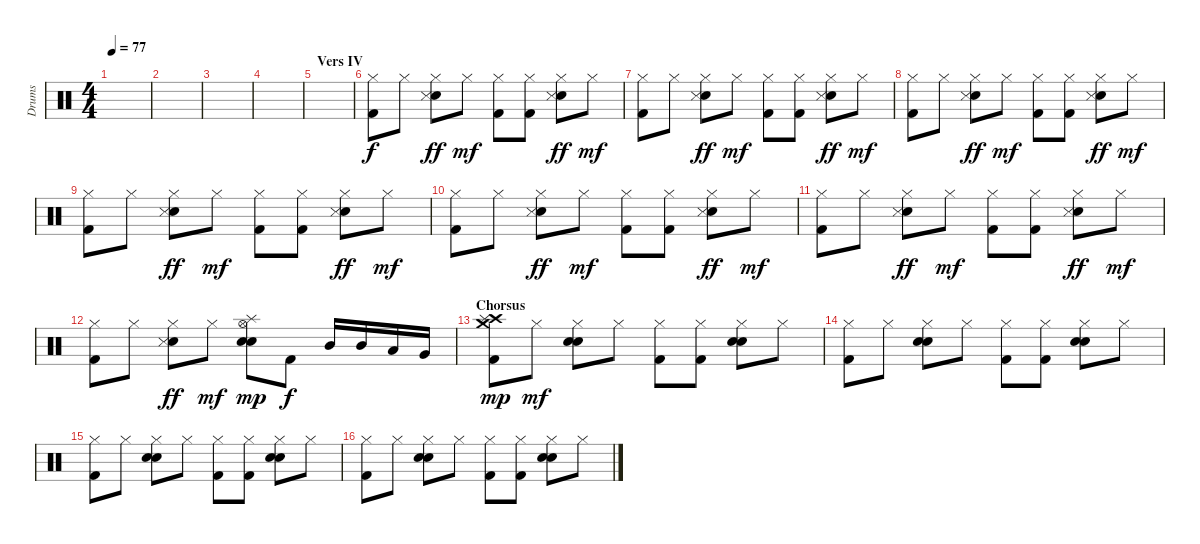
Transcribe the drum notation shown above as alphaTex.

\track ("Drums" "Drums") {instrument percussion}
\staff {score}
\articulation defaults
\ts (4 4)
\tempo 77
\clef neutral
\ks c
|
|
|
|
\section ("" "Vers IV")
|
("Hi-Hat (closed)" "Kick (hit) 2").8{volume 9} "Hi-Hat (closed)".8 ("Hi-Hat (closed)" "Hand Clap (hit)" "Snare (side stick) 3").8{dy ff} "Hi-Hat (closed)".8{dy mf} ("Hi-Hat (closed)" "Kick (hit) 2").8 ("Hi-Hat (closed)" "Kick (hit) 2").8 ("Hi-Hat (closed)" "Hand Clap (hit)" "Snare (side stick) 3").8{dy ff} "Hi-Hat (closed)".8{dy mf} |
("Hi-Hat (closed)" "Kick (hit) 2").8 "Hi-Hat (closed)".8 ("Hi-Hat (closed)" "Hand Clap (hit)" "Snare (side stick) 3").8{dy ff} "Hi-Hat (closed)".8{dy mf} ("Hi-Hat (closed)" "Kick (hit) 2").8 ("Hi-Hat (closed)" "Kick (hit) 2").8 ("Hi-Hat (closed)" "Hand Clap (hit)" "Snare (side stick) 3").8{dy ff} "Hi-Hat (closed)".8{dy mf} |
("Hi-Hat (closed)" "Kick (hit) 2").8 "Hi-Hat (closed)".8 ("Hi-Hat (closed)" "Hand Clap (hit)" "Snare (side stick) 3").8{dy ff} "Hi-Hat (closed)".8{dy mf} ("Hi-Hat (closed)" "Kick (hit) 2").8 ("Hi-Hat (closed)" "Kick (hit) 2").8 ("Hi-Hat (closed)" "Hand Clap (hit)" "Snare (side stick) 3").8{dy ff} "Hi-Hat (closed)".8{dy mf} |
("Hi-Hat (closed)" "Kick (hit) 2").8 "Hi-Hat (closed)".8 ("Hi-Hat (closed)" "Hand Clap (hit)" "Snare (side stick) 3").8{dy ff} "Hi-Hat (closed)".8{dy mf} ("Hi-Hat (closed)" "Kick (hit) 2").8 ("Hi-Hat (closed)" "Kick (hit) 2").8 ("Hi-Hat (closed)" "Hand Clap (hit)" "Snare (side stick) 3").8{dy ff} "Hi-Hat (closed)".8{dy mf} |
("Hi-Hat (closed)" "Kick (hit) 2").8 "Hi-Hat (closed)".8 ("Hi-Hat (closed)" "Hand Clap (hit)" "Snare (side stick) 3").8{dy ff} "Hi-Hat (closed)".8{dy mf} ("Hi-Hat (closed)" "Kick (hit) 2").8 ("Hi-Hat (closed)" "Kick (hit) 2").8 ("Hi-Hat (closed)" "Hand Clap (hit)" "Snare (side stick) 3").8{dy ff} "Hi-Hat (closed)".8{dy mf} |
("Hi-Hat (closed)" "Kick (hit) 2").8 "Hi-Hat (closed)".8 ("Hi-Hat (closed)" "Hand Clap (hit)" "Snare (side stick) 3").8{dy ff} "Hi-Hat (closed)".8{dy mf} ("Hi-Hat (closed)" "Kick (hit) 2").8 ("Hi-Hat (closed)" "Kick (hit) 2").8 ("Hi-Hat (closed)" "Hand Clap (hit)" "Snare (side stick) 3").8{dy ff} "Hi-Hat (closed)".8{dy mf} |
("Hi-Hat (closed)" "Kick (hit) 2").8 "Hi-Hat (closed)".8 ("Hi-Hat (closed)" "Hand Clap (hit)" "Snare (side stick) 3").8{dy ff} "Hi-Hat (closed)".8{dy mf} ("Hi-Hat (open)" "Splash (hit)" "Snare (hit) 2" "Electric Snare (hit)").8{dy mp} "Kick (hit) 2".8{dy f} "Mid Tom (hit)".16 "Mid Tom (hit)".16 "Low Tom (hit)".16 "Very Low Tom (hit)".16 |
\section ("" "Chorsus")
("Crash high (hit)" "Splash (hit)" "Crash medium (hit)" "Kick (hit) 2").8{dy mp} "Hi-Hat (closed)".8{dy mf} ("Hi-Hat (closed)" "Snare (hit) 2" "Electric Snare (hit)").8 "Hi-Hat (closed)".8 ("Hi-Hat (closed)" "Kick (hit) 2").8 ("Hi-Hat (closed)" "Kick (hit) 2").8 ("Hi-Hat (closed)" "Snare (hit) 2" "Electric Snare (hit)").8 "Hi-Hat (closed)".8 |
("Hi-Hat (closed)" "Kick (hit) 2").8 "Hi-Hat (closed)".8 ("Hi-Hat (closed)" "Snare (hit) 2" "Electric Snare (hit)").8 "Hi-Hat (closed)".8 ("Hi-Hat (closed)" "Kick (hit) 2").8 ("Hi-Hat (closed)" "Kick (hit) 2").8 ("Hi-Hat (closed)" "Snare (hit) 2" "Electric Snare (hit)").8 "Hi-Hat (closed)".8 |
("Hi-Hat (closed)" "Kick (hit) 2").8 "Hi-Hat (closed)".8 ("Hi-Hat (closed)" "Snare (hit) 2" "Electric Snare (hit)").8 "Hi-Hat (closed)".8 ("Hi-Hat (closed)" "Kick (hit) 2").8 ("Hi-Hat (closed)" "Kick (hit) 2").8 ("Hi-Hat (closed)" "Snare (hit) 2" "Electric Snare (hit)").8 "Hi-Hat (closed)".8 |
("Hi-Hat (closed)" "Kick (hit) 2").8 "Hi-Hat (closed)".8 ("Hi-Hat (closed)" "Snare (hit) 2" "Electric Snare (hit)").8 "Hi-Hat (closed)".8 ("Hi-Hat (closed)" "Kick (hit) 2").8 ("Hi-Hat (closed)" "Kick (hit) 2").8 ("Hi-Hat (closed)" "Snare (hit) 2" "Electric Snare (hit)").8 "Hi-Hat (closed)".8
